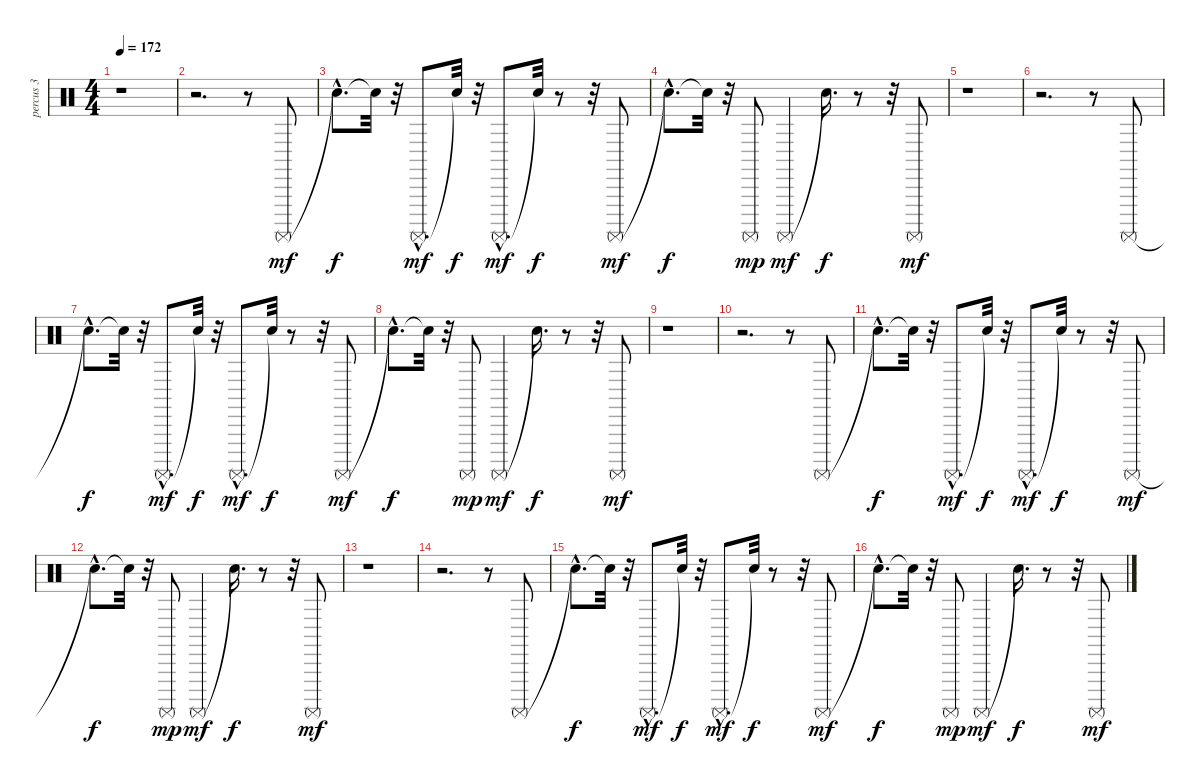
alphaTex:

\track ("percus 3" "percus 3") {instrument percussion}
\staff {score}
\articulation defaults
\ts (4 4)
\tempo 172
\clef neutral
\ks c
r.1{dy mf} |
r.2{d} r.8 "Surdo (mute)".8 |
"Snare (hit)"{hac t}.8{d dy f} "Snare (hit)"{t}.32 r.32 "Surdo (mute)"{hac}.8{d dy mf} "Snare (hit)"{t}.32{dy f} r.32 "Surdo (mute)"{hac}.8{d dy mf} "Snare (hit)"{t}.32{dy f} r.8 r.32 "Surdo (mute)".8{dy mf} |
"Snare (hit)"{hac t}.8{d dy f} "Snare (hit)"{t}.32 r.32 "Surdo (mute)".8{dy mp} "Surdo (mute)".4{dy mf} "Snare (hit)"{t}.16{d dy f} r.8 r.32 "Surdo (mute)".8{dy mf} |
r.1 |
r.2{d} r.8 "Surdo (mute)".8 |
"Snare (hit)"{hac t}.8{d dy f} "Snare (hit)"{t}.32 r.32 "Surdo (mute)"{hac}.8{d dy mf} "Snare (hit)"{t}.32{dy f} r.32 "Surdo (mute)"{hac}.8{d dy mf} "Snare (hit)"{t}.32{dy f} r.8 r.32 "Surdo (mute)".8{dy mf} |
"Snare (hit)"{hac t}.8{d dy f} "Snare (hit)"{t}.32 r.32 "Surdo (mute)".8{dy mp} "Surdo (mute)".4{dy mf} "Snare (hit)"{t}.16{d dy f} r.8 r.32 "Surdo (mute)".8{dy mf} |
r.1 |
r.2{d} r.8 "Surdo (mute)".8 |
"Snare (hit)"{hac t}.8{d dy f} "Snare (hit)"{t}.32 r.32 "Surdo (mute)"{hac}.8{d dy mf} "Snare (hit)"{t}.32{dy f} r.32 "Surdo (mute)"{hac}.8{d dy mf} "Snare (hit)"{t}.32{dy f} r.8 r.32 "Surdo (mute)".8{dy mf} |
"Snare (hit)"{hac t}.8{d dy f} "Snare (hit)"{t}.32 r.32 "Surdo (mute)".8{dy mp} "Surdo (mute)".4{dy mf} "Snare (hit)"{t}.16{d dy f} r.8 r.32 "Surdo (mute)".8{dy mf} |
r.1 |
r.2{d} r.8 "Surdo (mute)".8 |
"Snare (hit)"{hac t}.8{d dy f} "Snare (hit)"{t}.32 r.32 "Surdo (mute)"{hac}.8{d dy mf} "Snare (hit)"{t}.32{dy f} r.32 "Surdo (mute)"{hac}.8{d dy mf} "Snare (hit)"{t}.32{dy f} r.8 r.32 "Surdo (mute)".8{dy mf} |
"Snare (hit)"{hac t}.8{d dy f} "Snare (hit)"{t}.32 r.32 "Surdo (mute)".8{dy mp} "Surdo (mute)".4{dy mf} "Snare (hit)"{t}.16{d dy f} r.8 r.32 "Surdo (mute)".8{dy mf}
